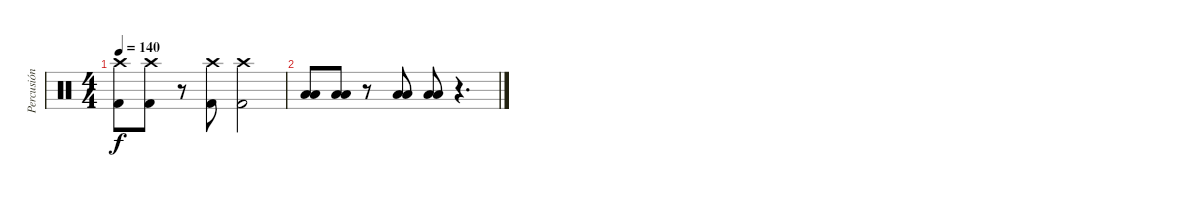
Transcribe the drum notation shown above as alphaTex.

\track ("Percusión" "Percusión") {instrument percussion}
\staff {score}
\articulation defaults
\ts (4 4)
\tempo 140
\clef neutral
\ks c
("Crash high (hit)" "Kick (hit) 2").8{dy f} ("Crash high (hit)" "Kick (hit) 2").8 r.8 ("Crash high (hit)" "Kick (hit) 2").8 ("Crash high (hit)" "Kick (hit) 2").2 |
("Low Floor Tom (hit)" "Low Floor Tom (hit)").8 ("Low Floor Tom (hit)" "Low Floor Tom (hit)").8 r.8 ("Low Floor Tom (hit)" "Low Floor Tom (hit)").8 ("Low Floor Tom (hit)" "Low Floor Tom (hit)").8 r.4{d}
